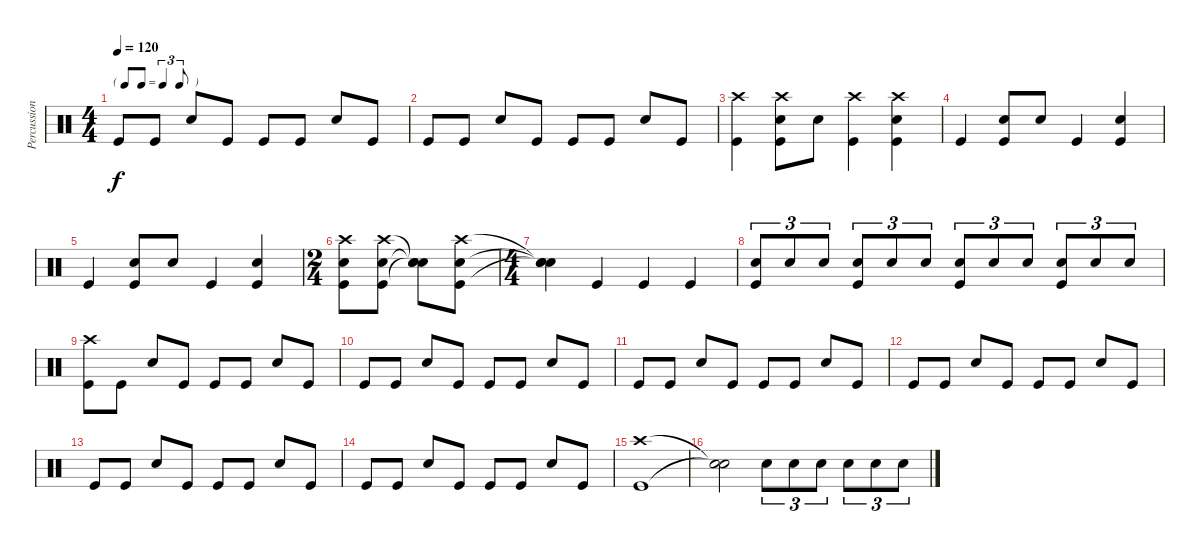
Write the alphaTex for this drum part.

\track ("Percussion" "Percussion") {instrument percussion}
\staff {score}
\articulation defaults
\ts (4 4)
\tf triplet8th
\tempo 120
\clef neutral
\ks c "Kick (hit)".8{dy f} "Kick (hit)".8 "Snare (hit) 2".8 "Kick (hit)".8 "Kick (hit)".8 "Kick (hit)".8 "Snare (hit) 2".8 "Kick (hit)".8
|
"Kick (hit)".8 "Kick (hit)".8 "Snare (hit) 2".8 "Kick (hit)".8 "Kick (hit)".8 "Kick (hit)".8 "Snare (hit) 2".8 "Kick (hit)".8 |
("Crash high (hit)" "Kick (hit)").4 ("Crash high (hit)" "Snare (hit) 2" "Kick (hit)").8 "Snare (hit) 2".8 ("Crash high (hit)" "Kick (hit)").4 ("Crash high (hit)" "Snare (hit) 2" "Kick (hit)").4 |
"Kick (hit)".4 ("Snare (hit) 2" "Kick (hit)").8 "Snare (hit) 2".8 "Kick (hit)".4 ("Snare (hit) 2" "Kick (hit)").4 |
"Kick (hit)".4 ("Snare (hit) 2" "Kick (hit)").8 "Snare (hit) 2".8 "Kick (hit)".4 ("Snare (hit) 2" "Kick (hit)").4 |
\ts (2 4)
("Crash high (hit)" "Snare (hit) 2" "Kick (hit)").8 ("Crash high (hit)" "Snare (hit) 2" "Kick (hit)").8 ("Snare (hit)"{t} "Snare (hit)"{t} "Snare (hit)"{t}).8 ("Crash high (hit)" "Snare (hit) 2" "Kick (hit)").8 |
\ts (4 4)
("Snare (hit)"{t} "Snare (hit)"{t} "Snare (hit)"{t}).4 "Kick (hit)".4 "Kick (hit)".4 "Kick (hit)".4 |
("Snare (hit) 2" "Kick (hit)").8{tu (3 2)} "Snare (hit) 2".8{tu (3 2)} "Snare (hit) 2".8{tu (3 2)} ("Snare (hit) 2" "Kick (hit)").8{tu (3 2)} "Snare (hit) 2".8{tu (3 2)} "Snare (hit) 2".8{tu (3 2)} ("Snare (hit) 2" "Kick (hit)").8{tu (3 2)} "Snare (hit) 2".8{tu (3 2)} "Snare (hit) 2".8{tu (3 2)} ("Snare (hit) 2" "Kick (hit)").8{tu (3 2)} "Snare (hit) 2".8{tu (3 2)} "Snare (hit) 2".8{tu (3 2)} |
("Crash high (hit)" "Kick (hit)").8 "Kick (hit)".8 "Snare (hit) 2".8 "Kick (hit)".8 "Kick (hit)".8 "Kick (hit)".8 "Snare (hit) 2".8 "Kick (hit)".8 |
"Kick (hit)".8 "Kick (hit)".8 "Snare (hit) 2".8 "Kick (hit)".8 "Kick (hit)".8 "Kick (hit)".8 "Snare (hit) 2".8 "Kick (hit)".8 |
"Kick (hit)".8 "Kick (hit)".8 "Snare (hit) 2".8 "Kick (hit)".8 "Kick (hit)".8 "Kick (hit)".8 "Snare (hit) 2".8 "Kick (hit)".8 |
"Kick (hit)".8 "Kick (hit)".8 "Snare (hit) 2".8 "Kick (hit)".8 "Kick (hit)".8 "Kick (hit)".8 "Snare (hit) 2".8 "Kick (hit)".8 |
"Kick (hit)".8 "Kick (hit)".8 "Snare (hit) 2".8 "Kick (hit)".8 "Kick (hit)".8 "Kick (hit)".8 "Snare (hit) 2".8 "Kick (hit)".8 |
"Kick (hit)".8 "Kick (hit)".8 "Snare (hit) 2".8 "Kick (hit)".8 "Kick (hit)".8 "Kick (hit)".8 "Snare (hit) 2".8 "Kick (hit)".8 |
("Crash high (hit)" "Kick (hit)").1 |
("Snare (hit)"{t} "Snare (hit)"{t}).2 "Snare (hit) 2".8{tu (3 2)} "Snare (hit) 2".8{tu (3 2)} "Snare (hit) 2".8{tu (3 2)} "Snare (hit) 2".8{tu (3 2)} "Snare (hit) 2".8{tu (3 2)} "Snare (hit) 2".8{tu (3 2)}
